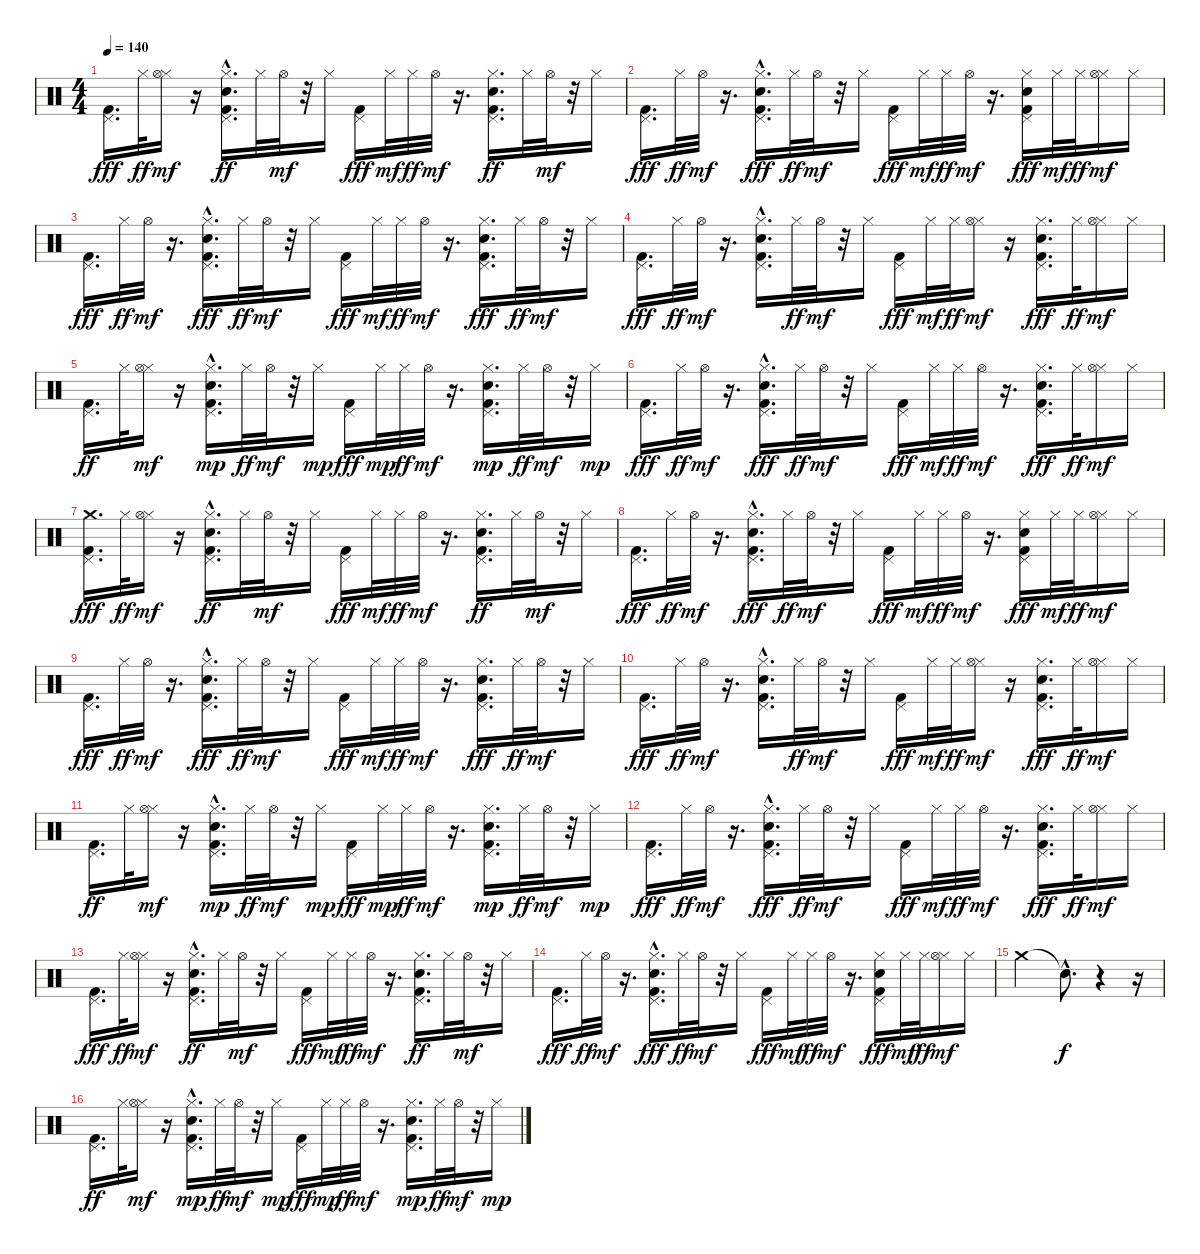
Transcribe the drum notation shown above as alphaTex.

\track "" {instrument percussion}
\staff {score}
\articulation defaults
\ts (4 4)
\tempo 140
\clef neutral
\ks c
("Pedal Hi-Hat (hit)" "Kick (hit) 2").16{d dy fff} "Hi-Hat (closed)".32{dy ff} ("Hi-Hat (closed)" "Hi-Hat (open)").16{dy mf} r.16 ("Hi-Hat (closed)" "Kick (hit) 2" "Pedal Hi-Hat (hit)" "Hand Clap (hit)"{hac}).16{d dy ff} "Hi-Hat (closed)".32 "Hi-Hat (open)".32{dy mf} r.32 "Hi-Hat (closed)".16 ("Pedal Hi-Hat (hit)" "Kick (hit) 2").16{dy fff} "Hi-Hat (closed)".32{dy mf} "Hi-Hat (closed)".32{dy ff} "Hi-Hat (open)".32{dy mf} r.16{d} ("Hi-Hat (closed)" "Kick (hit) 2" "Pedal Hi-Hat (hit)" "Hand Clap (hit)").16{d dy ff} "Hi-Hat (closed)".32 "Hi-Hat (open)".32{dy mf} r.32 "Hi-Hat (closed)".16 |
("Pedal Hi-Hat (hit)" "Kick (hit) 2").16{d dy fff} "Hi-Hat (closed)".32{dy ff} "Hi-Hat (open)".32{dy mf} r.16{d} ("Hi-Hat (closed)" "Hand Clap (hit)"{hac} "Pedal Hi-Hat (hit)" "Kick (hit) 2").16{d dy fff} "Hi-Hat (closed)".32{dy ff} "Hi-Hat (open)".32{dy mf} r.32 "Hi-Hat (closed)".16 ("Pedal Hi-Hat (hit)" "Kick (hit) 2").16{dy fff} "Hi-Hat (closed)".32{dy mf} "Hi-Hat (closed)".32{dy ff} "Hi-Hat (open)".32{dy mf} r.16{d} ("Hi-Hat (closed)" "Pedal Hi-Hat (hit)" "Kick (hit) 2" "Hand Clap (hit)").16{dy fff} "Hi-Hat (closed)".32{dy mf} "Hi-Hat (closed)".32{dy ff} ("Hi-Hat (closed)" "Hi-Hat (open)").16{dy mf} "Hi-Hat (closed)".16 |
("Pedal Hi-Hat (hit)" "Kick (hit) 2").16{d dy fff} "Hi-Hat (closed)".32{dy ff} "Hi-Hat (open)".32{dy mf} r.16{d} ("Pedal Hi-Hat (hit)" "Hand Clap (hit)"{hac} "Hi-Hat (closed)" "Kick (hit) 2").16{d dy fff} "Hi-Hat (closed)".32{dy ff} "Hi-Hat (open)".32{dy mf} r.32 "Hi-Hat (closed)".16 ("Pedal Hi-Hat (hit)" "Kick (hit) 2").16{dy fff} "Hi-Hat (closed)".32{dy mf} "Hi-Hat (closed)".32{dy ff} "Hi-Hat (open)".32{dy mf} r.16{d} ("Pedal Hi-Hat (hit)" "Hand Clap (hit)" "Hi-Hat (closed)" "Kick (hit) 2").16{d dy fff} "Hi-Hat (closed)".32{dy ff} "Hi-Hat (open)".32{dy mf} r.32 "Hi-Hat (closed)".16 |
("Pedal Hi-Hat (hit)" "Kick (hit) 2").16{d dy fff} "Hi-Hat (closed)".32{dy ff} "Hi-Hat (open)".32{dy mf} r.16{d} ("Pedal Hi-Hat (hit)" "Kick (hit) 2" "Hi-Hat (closed)" "Hand Clap (hit)"{hac}).16{d} "Hi-Hat (closed)".32{dy ff} "Hi-Hat (open)".32{dy mf} r.32 "Hi-Hat (closed)".16 ("Pedal Hi-Hat (hit)" "Kick (hit) 2").16{dy fff} "Hi-Hat (closed)".32{dy mf} "Hi-Hat (closed)".32{dy ff} ("Hi-Hat (closed)" "Hi-Hat (open)").16{dy mf} r.16 ("Pedal Hi-Hat (hit)" "Hand Clap (hit)" "Hi-Hat (closed)" "Kick (hit) 2").16{d dy fff} "Hi-Hat (closed)".32{dy ff} ("Hi-Hat (closed)" "Hi-Hat (open)").16{dy mf} "Hi-Hat (closed)".16 |
("Kick (hit) 2" "Pedal Hi-Hat (hit)").16{d dy ff} "Hi-Hat (closed)".32 ("Hi-Hat (closed)" "Hi-Hat (open)").16{dy mf} r.16 ("Pedal Hi-Hat (hit)" "Kick (hit) 2" "Hi-Hat (closed)" "Hand Clap (hit)"{hac}).16{d dy mp} "Hi-Hat (closed)".32{dy ff} "Hi-Hat (open)".32{dy mf} r.32 "Hi-Hat (closed)".16{dy mp} ("Pedal Hi-Hat (hit)" "Kick (hit) 2").16{dy fff} "Hi-Hat (closed)".32{dy mp} "Hi-Hat (closed)".32{dy ff} "Hi-Hat (open)".32{dy mf} r.16{d} ("Kick (hit) 2" "Pedal Hi-Hat (hit)" "Hand Clap (hit)" "Hi-Hat (closed)").16{d dy mp} "Hi-Hat (closed)".32{dy ff} "Hi-Hat (open)".32{dy mf} r.32 "Hi-Hat (closed)".16{dy mp} |
("Pedal Hi-Hat (hit)" "Kick (hit) 2").16{d dy fff} "Hi-Hat (closed)".32{dy ff} "Hi-Hat (open)".32{dy mf} r.16{d} ("Hi-Hat (closed)" "Hand Clap (hit)"{hac} "Pedal Hi-Hat (hit)" "Kick (hit) 2").16{d dy fff} "Hi-Hat (closed)".32{dy ff} "Hi-Hat (open)".32{dy mf} r.32 "Hi-Hat (closed)".16 ("Pedal Hi-Hat (hit)" "Kick (hit) 2").16{dy fff} "Hi-Hat (closed)".32{dy mf} "Hi-Hat (closed)".32{dy ff} "Hi-Hat (open)".32{dy mf} r.16{d} ("Hi-Hat (closed)" "Hand Clap (hit)" "Pedal Hi-Hat (hit)" "Kick (hit) 2").16{d dy fff} "Hi-Hat (closed)".32{dy ff} ("Hi-Hat (closed)" "Hi-Hat (open)").16{dy mf} "Hi-Hat (closed)".16 |
("Crash medium (hit)" "Pedal Hi-Hat (hit)" "Kick (hit) 2").16{d dy fff} "Hi-Hat (closed)".32{dy ff} ("Hi-Hat (closed)" "Hi-Hat (open)").16{dy mf} r.16 ("Hi-Hat (closed)" "Kick (hit) 2" "Pedal Hi-Hat (hit)" "Hand Clap (hit)"{hac}).16{d dy ff} "Hi-Hat (closed)".32 "Hi-Hat (open)".32{dy mf} r.32 "Hi-Hat (closed)".16 ("Pedal Hi-Hat (hit)" "Kick (hit) 2").16{dy fff} "Hi-Hat (closed)".32{dy mf} "Hi-Hat (closed)".32{dy ff} "Hi-Hat (open)".32{dy mf} r.16{d} ("Hi-Hat (closed)" "Kick (hit) 2" "Pedal Hi-Hat (hit)" "Hand Clap (hit)").16{d dy ff} "Hi-Hat (closed)".32 "Hi-Hat (open)".32{dy mf} r.32 "Hi-Hat (closed)".16 |
("Pedal Hi-Hat (hit)" "Kick (hit) 2").16{d dy fff} "Hi-Hat (closed)".32{dy ff} "Hi-Hat (open)".32{dy mf} r.16{d} ("Hi-Hat (closed)" "Hand Clap (hit)"{hac} "Pedal Hi-Hat (hit)" "Kick (hit) 2").16{d dy fff} "Hi-Hat (closed)".32{dy ff} "Hi-Hat (open)".32{dy mf} r.32 "Hi-Hat (closed)".16 ("Pedal Hi-Hat (hit)" "Kick (hit) 2").16{dy fff} "Hi-Hat (closed)".32{dy mf} "Hi-Hat (closed)".32{dy ff} "Hi-Hat (open)".32{dy mf} r.16{d} ("Hi-Hat (closed)" "Pedal Hi-Hat (hit)" "Kick (hit) 2" "Hand Clap (hit)").16{dy fff} "Hi-Hat (closed)".32{dy mf} "Hi-Hat (closed)".32{dy ff} ("Hi-Hat (closed)" "Hi-Hat (open)").16{dy mf} "Hi-Hat (closed)".16 |
("Pedal Hi-Hat (hit)" "Kick (hit) 2").16{d dy fff} "Hi-Hat (closed)".32{dy ff} "Hi-Hat (open)".32{dy mf} r.16{d} ("Pedal Hi-Hat (hit)" "Hand Clap (hit)"{hac} "Hi-Hat (closed)" "Kick (hit) 2").16{d dy fff} "Hi-Hat (closed)".32{dy ff} "Hi-Hat (open)".32{dy mf} r.32 "Hi-Hat (closed)".16 ("Pedal Hi-Hat (hit)" "Kick (hit) 2").16{dy fff} "Hi-Hat (closed)".32{dy mf} "Hi-Hat (closed)".32{dy ff} "Hi-Hat (open)".32{dy mf} r.16{d} ("Pedal Hi-Hat (hit)" "Hand Clap (hit)" "Hi-Hat (closed)" "Kick (hit) 2").16{d dy fff} "Hi-Hat (closed)".32{dy ff} "Hi-Hat (open)".32{dy mf} r.32 "Hi-Hat (closed)".16 |
("Pedal Hi-Hat (hit)" "Kick (hit) 2").16{d dy fff} "Hi-Hat (closed)".32{dy ff} "Hi-Hat (open)".32{dy mf} r.16{d} ("Pedal Hi-Hat (hit)" "Kick (hit) 2" "Hi-Hat (closed)" "Hand Clap (hit)"{hac}).16{d} "Hi-Hat (closed)".32{dy ff} "Hi-Hat (open)".32{dy mf} r.32 "Hi-Hat (closed)".16 ("Pedal Hi-Hat (hit)" "Kick (hit) 2").16{dy fff} "Hi-Hat (closed)".32{dy mf} "Hi-Hat (closed)".32{dy ff} ("Hi-Hat (closed)" "Hi-Hat (open)").16{dy mf} r.16 ("Pedal Hi-Hat (hit)" "Hand Clap (hit)" "Hi-Hat (closed)" "Kick (hit) 2").16{d dy fff} "Hi-Hat (closed)".32{dy ff} ("Hi-Hat (closed)" "Hi-Hat (open)").16{dy mf} "Hi-Hat (closed)".16 |
("Kick (hit) 2" "Pedal Hi-Hat (hit)").16{d dy ff} "Hi-Hat (closed)".32 ("Hi-Hat (closed)" "Hi-Hat (open)").16{dy mf} r.16 ("Pedal Hi-Hat (hit)" "Kick (hit) 2" "Hi-Hat (closed)" "Hand Clap (hit)"{hac}).16{d dy mp} "Hi-Hat (closed)".32{dy ff} "Hi-Hat (open)".32{dy mf} r.32 "Hi-Hat (closed)".16{dy mp} ("Pedal Hi-Hat (hit)" "Kick (hit) 2").16{dy fff} "Hi-Hat (closed)".32{dy mp} "Hi-Hat (closed)".32{dy ff} "Hi-Hat (open)".32{dy mf} r.16{d} ("Kick (hit) 2" "Pedal Hi-Hat (hit)" "Hand Clap (hit)" "Hi-Hat (closed)").16{d dy mp} "Hi-Hat (closed)".32{dy ff} "Hi-Hat (open)".32{dy mf} r.32 "Hi-Hat (closed)".16{dy mp} |
("Pedal Hi-Hat (hit)" "Kick (hit) 2").16{d dy fff} "Hi-Hat (closed)".32{dy ff} "Hi-Hat (open)".32{dy mf} r.16{d} ("Hi-Hat (closed)" "Hand Clap (hit)"{hac} "Pedal Hi-Hat (hit)" "Kick (hit) 2").16{d dy fff} "Hi-Hat (closed)".32{dy ff} "Hi-Hat (open)".32{dy mf} r.32 "Hi-Hat (closed)".16 ("Pedal Hi-Hat (hit)" "Kick (hit) 2").16{dy fff} "Hi-Hat (closed)".32{dy mf} "Hi-Hat (closed)".32{dy ff} "Hi-Hat (open)".32{dy mf} r.16{d} ("Hi-Hat (closed)" "Hand Clap (hit)" "Pedal Hi-Hat (hit)" "Kick (hit) 2").16{d dy fff} "Hi-Hat (closed)".32{dy ff} ("Hi-Hat (closed)" "Hi-Hat (open)").16{dy mf} "Hi-Hat (closed)".16 |
("Pedal Hi-Hat (hit)" "Kick (hit) 2").16{d dy fff} "Hi-Hat (closed)".32{dy ff} ("Hi-Hat (closed)" "Hi-Hat (open)").16{dy mf} r.16 ("Hi-Hat (closed)" "Kick (hit) 2" "Pedal Hi-Hat (hit)" "Hand Clap (hit)"{hac}).16{d dy ff} "Hi-Hat (closed)".32 "Hi-Hat (open)".32{dy mf} r.32 "Hi-Hat (closed)".16 ("Pedal Hi-Hat (hit)" "Kick (hit) 2").16{dy fff} "Hi-Hat (closed)".32{dy mf} "Hi-Hat (closed)".32{dy ff} "Hi-Hat (open)".32{dy mf} r.16{d} ("Hi-Hat (closed)" "Kick (hit) 2" "Pedal Hi-Hat (hit)" "Hand Clap (hit)").16{d dy ff} "Hi-Hat (closed)".32 "Hi-Hat (open)".32{dy mf} r.32 "Hi-Hat (closed)".16 |
("Pedal Hi-Hat (hit)" "Kick (hit) 2").16{d dy fff} "Hi-Hat (closed)".32{dy ff} "Hi-Hat (open)".32{dy mf} r.16{d} ("Hi-Hat (closed)" "Hand Clap (hit)"{hac} "Pedal Hi-Hat (hit)" "Kick (hit) 2").16{d dy fff} "Hi-Hat (closed)".32{dy ff} "Hi-Hat (open)".32{dy mf} r.32 "Hi-Hat (closed)".16 ("Pedal Hi-Hat (hit)" "Kick (hit) 2").16{dy fff} "Hi-Hat (closed)".32{dy mf} "Hi-Hat (closed)".32{dy ff} "Hi-Hat (open)".32{dy mf} r.16{d} ("Hi-Hat (closed)" "Pedal Hi-Hat (hit)" "Kick (hit) 2" "Hand Clap (hit)").16{dy fff} "Hi-Hat (closed)".32{dy mf} "Hi-Hat (closed)".32{dy ff} ("Hi-Hat (closed)" "Hi-Hat (open)").16{dy mf} "Hi-Hat (closed)".16 |
"Crash medium (hit)".2 "Snare (hit)"{hac t}.8{d dy f} r.4 r.16 |
("Kick (hit) 2" "Pedal Hi-Hat (hit)").16{d dy ff} "Hi-Hat (closed)".32 ("Hi-Hat (closed)" "Hi-Hat (open)").16{dy mf} r.16 ("Pedal Hi-Hat (hit)" "Kick (hit) 2" "Hi-Hat (closed)" "Hand Clap (hit)"{hac}).16{d dy mp} "Hi-Hat (closed)".32{dy ff} "Hi-Hat (open)".32{dy mf} r.32 "Hi-Hat (closed)".16{dy mp} ("Pedal Hi-Hat (hit)" "Kick (hit) 2").16{dy fff} "Hi-Hat (closed)".32{dy mp} "Hi-Hat (closed)".32{dy ff} "Hi-Hat (open)".32{dy mf} r.16{d} ("Kick (hit) 2" "Pedal Hi-Hat (hit)" "Hand Clap (hit)" "Hi-Hat (closed)").16{d dy mp} "Hi-Hat (closed)".32{dy ff} "Hi-Hat (open)".32{dy mf} r.32 "Hi-Hat (closed)".16{dy mp}
